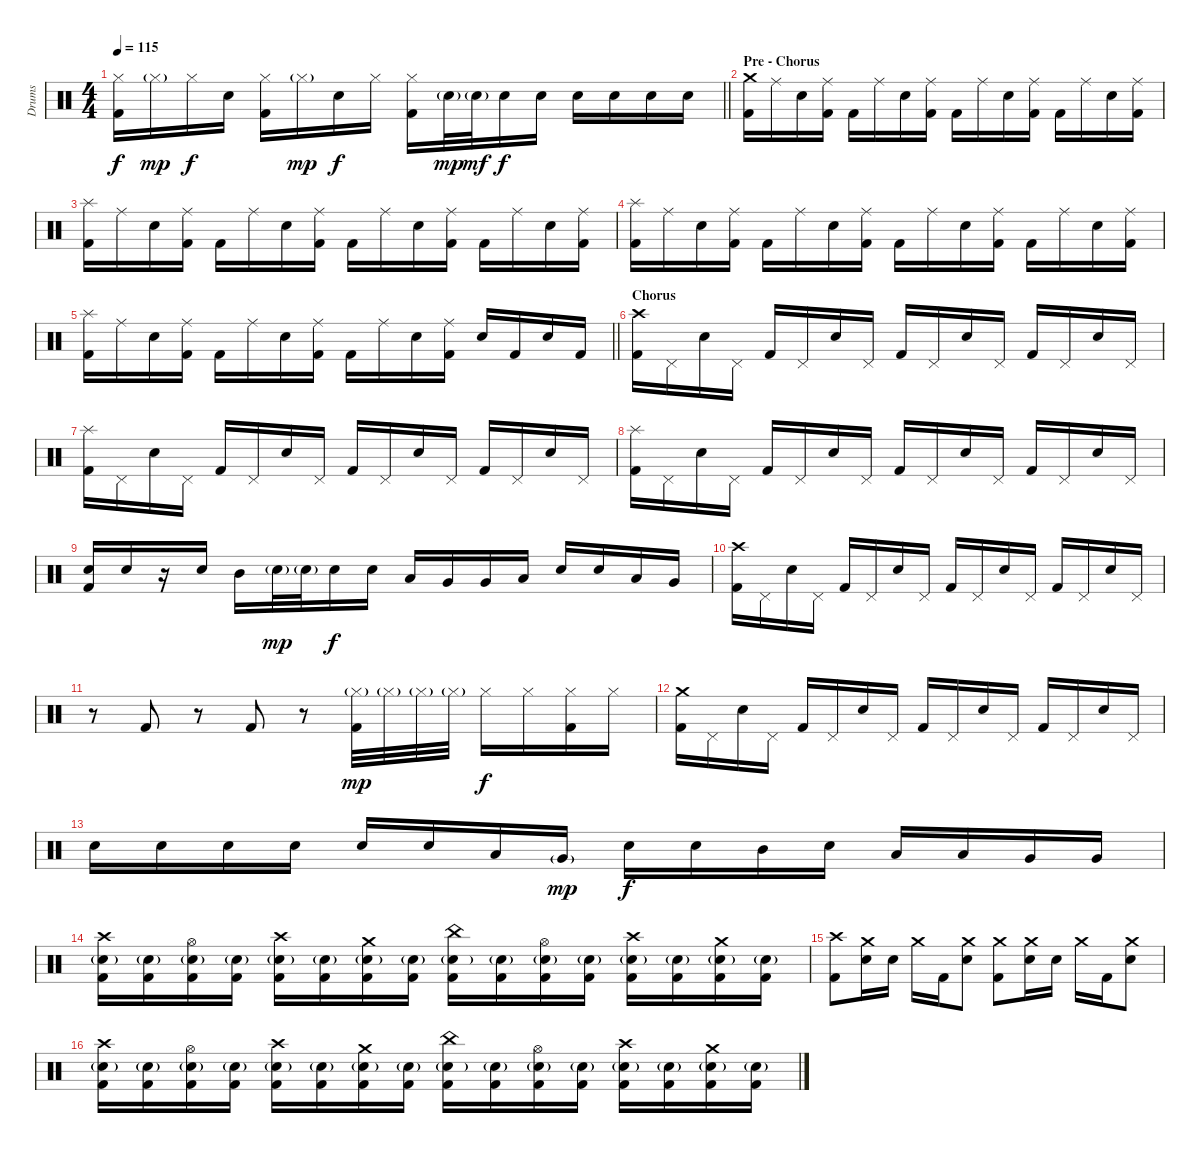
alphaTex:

\track ("Drums" "Drums") {instrument percussion}
\staff {score}
\articulation defaults
\ts (4 4)
\tempo 115
\clef neutral
\barLineRight lightlight
\ks c
("Hi-Hat (closed)" "Kick (hit) 2").16{dy f} "Hi-Hat (closed)"{g}.16{dy mp} "Hi-Hat (closed)".16{dy f} "Electric Snare (hit)".16 ("Hi-Hat (closed)" "Kick (hit) 2").16 "Hi-Hat (closed)"{g}.16{dy mp} "Electric Snare (hit)".16{dy f} "Hi-Hat (closed)".16 ("Hi-Hat (closed)" "Kick (hit) 2").16 "Electric Snare (hit)"{g}.32{dy mp} "Electric Snare (hit)"{g}.32{dy mf} "Electric Snare (hit)".16{dy f} "Electric Snare (hit)".16 "Electric Snare (hit)".16 "Electric Snare (hit)".16 "Electric Snare (hit)".16 "Electric Snare (hit)".16 |
\section ("" "Pre - Chorus")
("Crash medium (hit)" "Kick (hit) 2").16 "Ride (middle)".16 "Electric Snare (hit)".16 ("Ride (middle)" "Kick (hit) 2").16 "Kick (hit) 2".16 "Ride (middle)".16 "Electric Snare (hit)".16 ("Ride (middle)" "Kick (hit) 2").16 "Kick (hit) 2".16 "Ride (middle)".16 "Electric Snare (hit)".16 ("Ride (middle)" "Kick (hit) 2").16 "Kick (hit) 2".16 "Ride (middle)".16 "Electric Snare (hit)".16 ("Ride (middle)" "Kick (hit) 2").16 |
("Splash (hit)" "Kick (hit) 2").16 "Ride (middle)".16 "Electric Snare (hit)".16 ("Ride (middle)" "Kick (hit) 2").16 "Kick (hit) 2".16 "Ride (middle)".16 "Electric Snare (hit)".16 ("Ride (middle)" "Kick (hit) 2").16 "Kick (hit) 2".16 "Ride (middle)".16 "Electric Snare (hit)".16 ("Ride (middle)" "Kick (hit) 2").16 "Kick (hit) 2".16 "Ride (middle)".16 "Electric Snare (hit)".16 ("Ride (middle)" "Kick (hit) 2").16 |
("Splash (hit)" "Kick (hit) 2").16 "Ride (middle)".16 "Electric Snare (hit)".16 ("Ride (middle)" "Kick (hit) 2").16 "Kick (hit) 2".16 "Ride (middle)".16 "Electric Snare (hit)".16 ("Ride (middle)" "Kick (hit) 2").16 "Kick (hit) 2".16 "Ride (middle)".16 "Electric Snare (hit)".16 ("Ride (middle)" "Kick (hit) 2").16 "Kick (hit) 2".16 "Ride (middle)".16 "Electric Snare (hit)".16 ("Ride (middle)" "Kick (hit) 2").16 |
\barLineRight lightlight
("Splash (hit)" "Kick (hit) 2").16 "Ride (middle)".16 "Electric Snare (hit)".16 ("Ride (middle)" "Kick (hit) 2").16 "Kick (hit) 2".16 "Ride (middle)".16 "Electric Snare (hit)".16 ("Ride (middle)" "Kick (hit) 2").16 "Kick (hit) 2".16 "Ride (middle)".16 "Electric Snare (hit)".16 ("Ride (middle)" "Kick (hit) 2").16 "Electric Snare (hit)".16 "Kick (hit) 2".16 "Electric Snare (hit)".16 "Kick (hit) 2".16 |
\section ("" "Chorus")
("Crash high (hit)" "Kick (hit) 2").16 "Pedal Hi-Hat (hit)".16 "Electric Snare (hit)".16 "Pedal Hi-Hat (hit)".16 "Kick (hit) 2".16 "Pedal Hi-Hat (hit)".16 "Electric Snare (hit)".16 "Pedal Hi-Hat (hit)".16 "Kick (hit) 2".16 "Pedal Hi-Hat (hit)".16 "Electric Snare (hit)".16 "Pedal Hi-Hat (hit)".16 "Kick (hit) 2".16 "Pedal Hi-Hat (hit)".16 "Electric Snare (hit)".16 "Pedal Hi-Hat (hit)".16 |
("Splash (hit)" "Kick (hit) 2").16 "Pedal Hi-Hat (hit)".16 "Electric Snare (hit)".16 "Pedal Hi-Hat (hit)".16 "Kick (hit) 2".16 "Pedal Hi-Hat (hit)".16 "Electric Snare (hit)".16 "Pedal Hi-Hat (hit)".16 "Kick (hit) 2".16 "Pedal Hi-Hat (hit)".16 "Electric Snare (hit)".16 "Pedal Hi-Hat (hit)".16 "Kick (hit) 2".16 "Pedal Hi-Hat (hit)".16 "Electric Snare (hit)".16 "Pedal Hi-Hat (hit)".16 |
("Splash (hit)" "Kick (hit) 2").16 "Pedal Hi-Hat (hit)".16 "Electric Snare (hit)".16 "Pedal Hi-Hat (hit)".16 "Kick (hit) 2".16 "Pedal Hi-Hat (hit)".16 "Electric Snare (hit)".16 "Pedal Hi-Hat (hit)".16 "Kick (hit) 2".16 "Pedal Hi-Hat (hit)".16 "Electric Snare (hit)".16 "Pedal Hi-Hat (hit)".16 "Kick (hit) 2".16 "Pedal Hi-Hat (hit)".16 "Electric Snare (hit)".16 "Pedal Hi-Hat (hit)".16 |
("Electric Snare (hit)" "Kick (hit) 2").16 "Electric Snare (hit)".16 r.16 "Electric Snare (hit)".16 "Mid Tom (hit)".16 "Electric Snare (hit)"{g}.32{dy mp} "Electric Snare (hit)"{g}.32 "Electric Snare (hit)".16{dy f} "Electric Snare (hit)".16 "Low Tom (hit)".16 "Very Low Tom (hit)".16 "Very Low Tom (hit)".16 "Low Floor Tom (hit)".16 "Electric Snare (hit)".16 "Electric Snare (hit)".16 "Low Tom (hit)".16 "Very Low Tom (hit)".16 |
("Crash high (hit)" "Kick (hit) 2").16 "Pedal Hi-Hat (hit)".16 "Electric Snare (hit)".16 "Pedal Hi-Hat (hit)".16 "Kick (hit) 2".16 "Pedal Hi-Hat (hit)".16 "Electric Snare (hit)".16 "Pedal Hi-Hat (hit)".16 "Kick (hit) 2".16 "Pedal Hi-Hat (hit)".16 "Electric Snare (hit)".16 "Pedal Hi-Hat (hit)".16 "Kick (hit) 2".16 "Pedal Hi-Hat (hit)".16 "Electric Snare (hit)".16 "Pedal Hi-Hat (hit)".16 |
r.8 "Kick (hit) 2".8 r.8 "Kick (hit) 2".8 r.8 ("Hi-Hat (closed)"{g} "Kick (hit) 2").32{dy mp} "Hi-Hat (closed)"{g}.32 "Hi-Hat (closed)"{g}.32 "Hi-Hat (closed)"{g}.32 "Hi-Hat (closed)".16{dy f} "Hi-Hat (closed)".16 ("Hi-Hat (closed)" "Kick (hit) 2").16 "Hi-Hat (closed)".16 |
("Crash medium (hit)" "Kick (hit) 2").16 "Pedal Hi-Hat (hit)".16 "Electric Snare (hit)".16 "Pedal Hi-Hat (hit)".16 "Kick (hit) 2".16 "Pedal Hi-Hat (hit)".16 "Electric Snare (hit)".16 "Pedal Hi-Hat (hit)".16 "Kick (hit) 2".16 "Pedal Hi-Hat (hit)".16 "Electric Snare (hit)".16 "Pedal Hi-Hat (hit)".16 "Kick (hit) 2".16 "Pedal Hi-Hat (hit)".16 "Electric Snare (hit)".16 "Pedal Hi-Hat (hit)".16 |
"Electric Snare (hit)".16 "Electric Snare (hit)".16 "Electric Snare (hit)".16 "Electric Snare (hit)".16 "Electric Snare (hit)".16 "Electric Snare (hit)".16 "Low Tom (hit)".16 "Very Low Tom (hit)"{g}.16{dy mp} "Electric Snare (hit)".16{dy f} "Electric Snare (hit)".16 "Mid Tom (hit)".16 "Electric Snare (hit)".16 "Low Tom (hit)".16 "Low Tom (hit)".16 "Very Low Tom (hit)".16 "Very Low Tom (hit)".16 |
("Crash high (hit)" "Electric Snare (hit)"{g} "Kick (hit) 2").16 ("Electric Snare (hit)"{g} "Kick (hit) 2").16 ("Hi-Hat (open)" "Electric Snare (hit)"{g} "Kick (hit) 2").16 ("Electric Snare (hit)"{g} "Kick (hit) 2").16 ("Crash high (hit)" "Electric Snare (hit)"{g} "Kick (hit) 2").16 ("Electric Snare (hit)"{g} "Kick (hit) 2").16 ("Crash medium (hit)" "Electric Snare (hit)"{g} "Kick (hit) 2").16 ("Electric Snare (hit)"{g} "Kick (hit) 2").16 ("China (hit)" "Electric Snare (hit)"{g} "Kick (hit) 2").16 ("Electric Snare (hit)"{g} "Kick (hit) 2").16 ("Hi-Hat (open)" "Electric Snare (hit)"{g} "Kick (hit) 2").16 ("Electric Snare (hit)"{g} "Kick (hit) 2").16 ("Crash high (hit)" "Electric Snare (hit)"{g} "Kick (hit) 2").16 ("Electric Snare (hit)"{g} "Kick (hit) 2").16 ("Crash medium (hit)" "Electric Snare (hit)"{g} "Kick (hit) 2").16 ("Electric Snare (hit)"{g} "Kick (hit) 2").16 |
("Crash high (hit)" "Kick (hit) 2").8 ("Crash medium (hit)" "Electric Snare (hit)").16 "Electric Snare (hit)".16 "Crash medium (hit)".16 "Kick (hit) 2".16 ("Crash medium (hit)" "Electric Snare (hit)").8 ("Crash medium (hit)" "Kick (hit) 2").8 ("Crash medium (hit)" "Electric Snare (hit)").16 "Electric Snare (hit)".16 "Crash medium (hit)".16 "Kick (hit) 2".16 ("Crash medium (hit)" "Electric Snare (hit)").8 |
("Crash high (hit)" "Electric Snare (hit)"{g} "Kick (hit) 2").16 ("Electric Snare (hit)"{g} "Kick (hit) 2").16 ("Hi-Hat (open)" "Electric Snare (hit)"{g} "Kick (hit) 2").16 ("Electric Snare (hit)"{g} "Kick (hit) 2").16 ("Crash high (hit)" "Electric Snare (hit)"{g} "Kick (hit) 2").16 ("Electric Snare (hit)"{g} "Kick (hit) 2").16 ("Crash medium (hit)" "Electric Snare (hit)"{g} "Kick (hit) 2").16 ("Electric Snare (hit)"{g} "Kick (hit) 2").16 ("China (hit)" "Electric Snare (hit)"{g} "Kick (hit) 2").16 ("Electric Snare (hit)"{g} "Kick (hit) 2").16 ("Hi-Hat (open)" "Electric Snare (hit)"{g} "Kick (hit) 2").16 ("Electric Snare (hit)"{g} "Kick (hit) 2").16 ("Crash high (hit)" "Electric Snare (hit)"{g} "Kick (hit) 2").16 ("Electric Snare (hit)"{g} "Kick (hit) 2").16 ("Crash medium (hit)" "Electric Snare (hit)"{g} "Kick (hit) 2").16 ("Electric Snare (hit)"{g} "Kick (hit) 2").16
